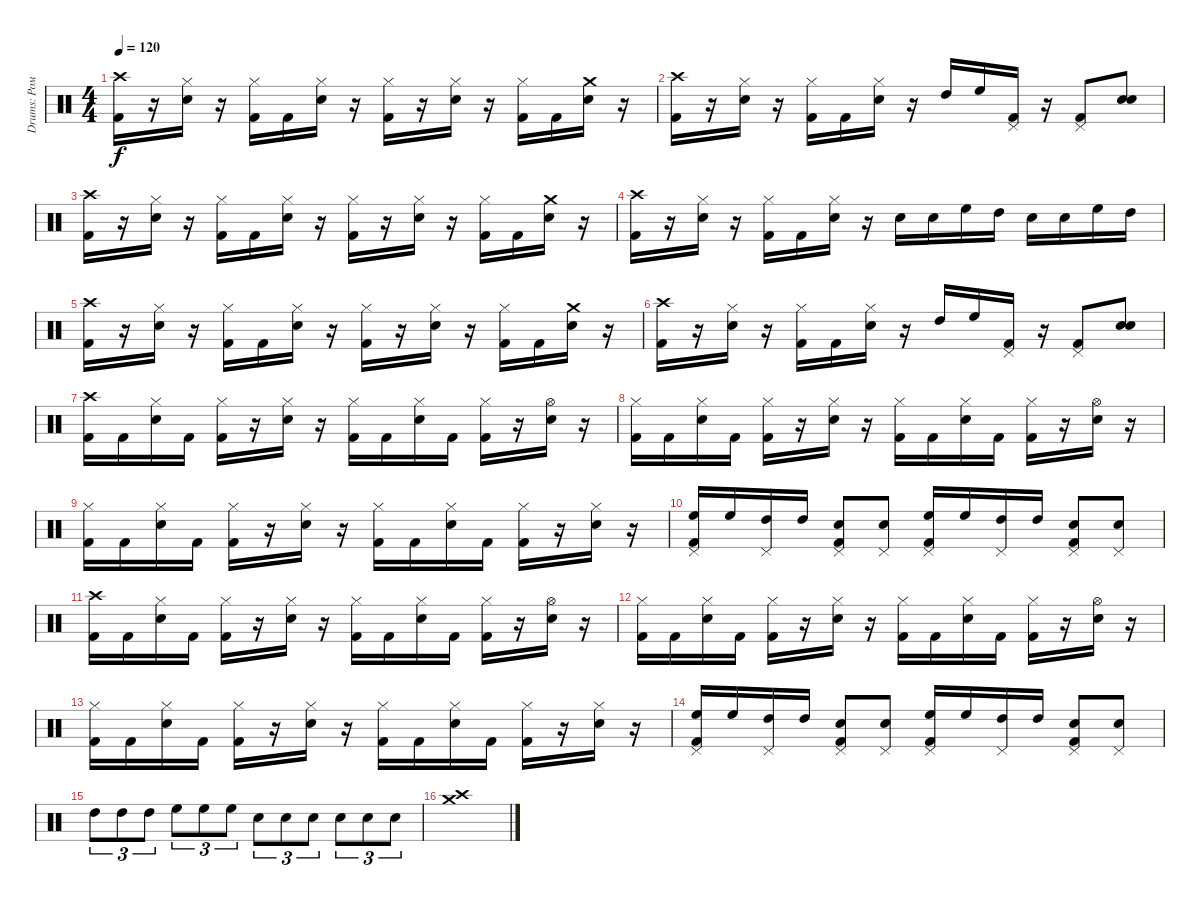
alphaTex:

\track ("Drums: Рома" "Drums: Ром") {instrument percussion}
\staff {score}
\articulation defaults
\ts (4 4)
\tempo 120
\clef neutral
\ks c
("Crash high (hit)" "Kick (hit) 2").16{dy f} r.16 ("Hi-Hat (closed)" "Snare (hit) 2").16 r.16 ("Hi-Hat (closed)" "Kick (hit) 2").16 "Kick (hit) 2".16 ("Hi-Hat (closed)" "Snare (hit) 2").16 r.16 ("Hi-Hat (closed)" "Kick (hit) 2").16 r.16 ("Hi-Hat (closed)" "Snare (hit) 2").16 r.16 ("Hi-Hat (closed)" "Kick (hit) 2").16 "Kick (hit) 2".16 ("Crash medium (hit)" "Snare (hit) 2").16 r.16 |
("Crash high (hit)" "Kick (hit) 2").16 r.16 ("Hi-Hat (closed)" "Snare (hit) 2").16 r.16 ("Hi-Hat (closed)" "Kick (hit) 2").16 "Kick (hit) 2".16 ("Hi-Hat (closed)" "Snare (hit) 2").16 r.16 "High Tom (hit)".16 "High Floor Tom (hit)".16 ("Kick (hit) 2" "Pedal Hi-Hat (hit)").16 r.16 ("Kick (hit) 2" "Pedal Hi-Hat (hit)").8 ("Snare (hit) 2" "Snare (hit) 2").8 |
("Crash high (hit)" "Kick (hit) 2").16 r.16 ("Hi-Hat (closed)" "Snare (hit) 2").16 r.16 ("Hi-Hat (closed)" "Kick (hit) 2").16 "Kick (hit) 2".16 ("Hi-Hat (closed)" "Snare (hit) 2").16 r.16 ("Hi-Hat (closed)" "Kick (hit) 2").16 r.16 ("Hi-Hat (closed)" "Snare (hit) 2").16 r.16 ("Hi-Hat (closed)" "Kick (hit) 2").16 "Kick (hit) 2".16 ("Crash medium (hit)" "Snare (hit) 2").16 r.16 |
("Crash high (hit)" "Kick (hit) 2").16 r.16 ("Hi-Hat (closed)" "Snare (hit) 2").16 r.16 ("Hi-Hat (closed)" "Kick (hit) 2").16 "Kick (hit) 2".16 ("Hi-Hat (closed)" "Snare (hit) 2").16 r.16 "Snare (hit) 2".16 "Snare (hit) 2".16 "High Floor Tom (hit)".16 "High Tom (hit)".16 "Snare (hit) 2".16 "Snare (hit) 2".16 "High Floor Tom (hit)".16 "High Tom (hit)".16 |
("Crash high (hit)" "Kick (hit) 2").16 r.16 ("Hi-Hat (closed)" "Snare (hit) 2").16 r.16 ("Hi-Hat (closed)" "Kick (hit) 2").16 "Kick (hit) 2".16 ("Hi-Hat (closed)" "Snare (hit) 2").16 r.16 ("Hi-Hat (closed)" "Kick (hit) 2").16 r.16 ("Hi-Hat (closed)" "Snare (hit) 2").16 r.16 ("Hi-Hat (closed)" "Kick (hit) 2").16 "Kick (hit) 2".16 ("Crash medium (hit)" "Snare (hit) 2").16 r.16 |
("Crash high (hit)" "Kick (hit) 2").16 r.16 ("Hi-Hat (closed)" "Snare (hit) 2").16 r.16 ("Hi-Hat (closed)" "Kick (hit) 2").16 "Kick (hit) 2".16 ("Hi-Hat (closed)" "Snare (hit) 2").16 r.16 "High Tom (hit)".16 "High Floor Tom (hit)".16 ("Kick (hit) 2" "Pedal Hi-Hat (hit)").16 r.16 ("Kick (hit) 2" "Pedal Hi-Hat (hit)").8 ("Snare (hit) 2" "Snare (hit) 2").8 |
("Kick (hit) 2" "Crash high (hit)").16 "Kick (hit) 2".16 ("Snare (hit) 2" "Hi-Hat (closed)").16 "Kick (hit) 2".16 ("Kick (hit) 2" "Hi-Hat (closed)").16 r.16 ("Snare (hit) 2" "Hi-Hat (closed)").16 r.16 ("Kick (hit) 2" "Hi-Hat (closed)").16 "Kick (hit) 2".16 ("Snare (hit) 2" "Hi-Hat (closed)").16 "Kick (hit) 2".16 ("Kick (hit) 2" "Hi-Hat (closed)").16 r.16 ("Snare (hit) 2" "Hi-Hat (open)").16 r.16 |
("Kick (hit) 2" "Hi-Hat (closed)").16 "Kick (hit) 2".16 ("Snare (hit) 2" "Hi-Hat (closed)").16 "Kick (hit) 2".16 ("Kick (hit) 2" "Hi-Hat (closed)").16 r.16 ("Snare (hit) 2" "Hi-Hat (closed)").16 r.16 ("Kick (hit) 2" "Hi-Hat (closed)").16 "Kick (hit) 2".16 ("Snare (hit) 2" "Hi-Hat (closed)").16 "Kick (hit) 2".16 ("Kick (hit) 2" "Hi-Hat (closed)").16 r.16 ("Snare (hit) 2" "Hi-Hat (open)").16 r.16 |
("Kick (hit) 2" "Hi-Hat (closed)").16 "Kick (hit) 2".16 ("Snare (hit) 2" "Hi-Hat (closed)").16 "Kick (hit) 2".16 ("Kick (hit) 2" "Hi-Hat (closed)").16 r.16 ("Snare (hit) 2" "Hi-Hat (closed)").16 r.16 ("Kick (hit) 2" "Hi-Hat (closed)").16 "Kick (hit) 2".16 ("Snare (hit) 2" "Hi-Hat (closed)").16 "Kick (hit) 2".16 ("Kick (hit) 2" "Hi-Hat (closed)").16 r.16 ("Snare (hit) 2" "Hi-Hat (closed)").16 r.16 |
("High Floor Tom (hit)" "Pedal Hi-Hat (hit)" "Kick (hit) 2").16 "High Floor Tom (hit)".16 ("High Tom (hit)" "Pedal Hi-Hat (hit)").16 "High Tom (hit)".16 ("Snare (hit) 2" "Pedal Hi-Hat (hit)" "Kick (hit) 2").8 ("Snare (hit) 2" "Pedal Hi-Hat (hit)").8 ("High Floor Tom (hit)" "Pedal Hi-Hat (hit)" "Kick (hit) 2").16 "High Floor Tom (hit)".16 ("High Tom (hit)" "Pedal Hi-Hat (hit)").16 "High Tom (hit)".16 ("Snare (hit) 2" "Pedal Hi-Hat (hit)" "Kick (hit) 2").8 ("Snare (hit) 2" "Pedal Hi-Hat (hit)").8 |
("Kick (hit) 2" "Crash high (hit)").16 "Kick (hit) 2".16 ("Snare (hit) 2" "Hi-Hat (closed)").16 "Kick (hit) 2".16 ("Kick (hit) 2" "Hi-Hat (closed)").16 r.16 ("Snare (hit) 2" "Hi-Hat (closed)").16 r.16 ("Kick (hit) 2" "Hi-Hat (closed)").16 "Kick (hit) 2".16 ("Snare (hit) 2" "Hi-Hat (closed)").16 "Kick (hit) 2".16 ("Kick (hit) 2" "Hi-Hat (closed)").16 r.16 ("Snare (hit) 2" "Hi-Hat (open)").16 r.16 |
("Kick (hit) 2" "Hi-Hat (closed)").16 "Kick (hit) 2".16 ("Snare (hit) 2" "Hi-Hat (closed)").16 "Kick (hit) 2".16 ("Kick (hit) 2" "Hi-Hat (closed)").16 r.16 ("Snare (hit) 2" "Hi-Hat (closed)").16 r.16 ("Kick (hit) 2" "Hi-Hat (closed)").16 "Kick (hit) 2".16 ("Snare (hit) 2" "Hi-Hat (closed)").16 "Kick (hit) 2".16 ("Kick (hit) 2" "Hi-Hat (closed)").16 r.16 ("Snare (hit) 2" "Hi-Hat (open)").16 r.16 |
("Kick (hit) 2" "Hi-Hat (closed)").16 "Kick (hit) 2".16 ("Snare (hit) 2" "Hi-Hat (closed)").16 "Kick (hit) 2".16 ("Kick (hit) 2" "Hi-Hat (closed)").16 r.16 ("Snare (hit) 2" "Hi-Hat (closed)").16 r.16 ("Kick (hit) 2" "Hi-Hat (closed)").16 "Kick (hit) 2".16 ("Snare (hit) 2" "Hi-Hat (closed)").16 "Kick (hit) 2".16 ("Kick (hit) 2" "Hi-Hat (closed)").16 r.16 ("Snare (hit) 2" "Hi-Hat (closed)").16 r.16 |
("High Floor Tom (hit)" "Pedal Hi-Hat (hit)" "Kick (hit) 2").16 "High Floor Tom (hit)".16 ("High Tom (hit)" "Pedal Hi-Hat (hit)").16 "High Tom (hit)".16 ("Snare (hit) 2" "Pedal Hi-Hat (hit)" "Kick (hit) 2").8 ("Snare (hit) 2" "Pedal Hi-Hat (hit)").8 ("High Floor Tom (hit)" "Pedal Hi-Hat (hit)" "Kick (hit) 2").16 "High Floor Tom (hit)".16 ("High Tom (hit)" "Pedal Hi-Hat (hit)").16 "High Tom (hit)".16 ("Snare (hit) 2" "Pedal Hi-Hat (hit)" "Kick (hit) 2").8 ("Snare (hit) 2" "Pedal Hi-Hat (hit)").8 |
"High Tom (hit)".8{tu (3 2)} "High Tom (hit)".8{tu (3 2)} "High Tom (hit)".8{tu (3 2)} "High Floor Tom (hit)".8{tu (3 2)} "High Floor Tom (hit)".8{tu (3 2)} "High Floor Tom (hit)".8{tu (3 2)} "Snare (hit) 2".8{tu (3 2)} "Snare (hit) 2".8{tu (3 2)} "Snare (hit) 2".8{tu (3 2)} "Snare (hit) 2".8{tu (3 2)} "Snare (hit) 2".8{tu (3 2)} "Snare (hit) 2".8{tu (3 2)} |
("Crash medium (hit)" "Crash high (hit)").1
